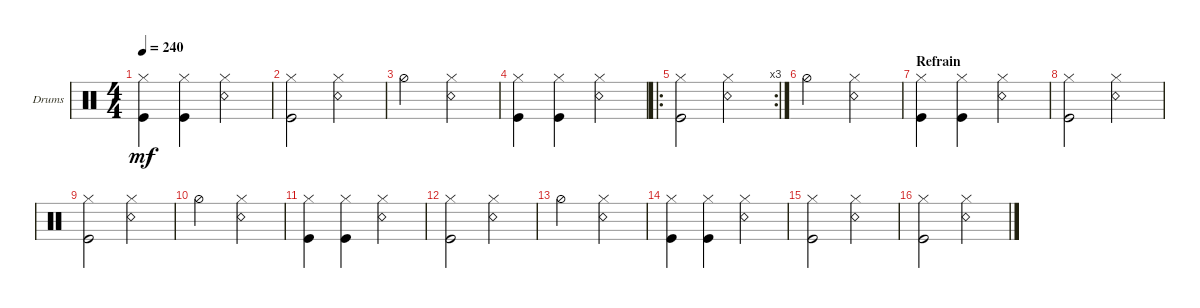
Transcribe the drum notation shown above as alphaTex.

\defaultSystemsLayout 4
\bracketExtendMode groupsimilarinstruments
\firstSystemTrackNameOrientation horizontal
\otherSystemsTrackNameOrientation horizontal
\track ("Drumkit" "Drums") {instrument percussion}
\staff {score}
\articulation defaults
\ts (4 4)
\tempo 240
\clef neutral
\ks c
("Kick (hit)" "Hi-Hat (closed)").4{dy mf} ("Kick (hit)" "Hi-Hat (closed)").4 ("Snare (rim shot)" "Hi-Hat (closed)").2 |
("Kick (hit)" "Hi-Hat (closed)").2 ("Snare (rim shot)" "Hi-Hat (closed)").2 |
"Hi-Hat (half)".2 ("Snare (rim shot)" "Hi-Hat (closed)").2 |
("Kick (hit)" "Hi-Hat (closed)").4 ("Kick (hit)" "Hi-Hat (closed)").4 ("Snare (rim shot)" "Hi-Hat (closed)").2 |
\ro
\rc 3
("Kick (hit)" "Hi-Hat (closed)").2 ("Snare (rim shot)" "Hi-Hat (closed)").2 |
"Hi-Hat (half)".2 ("Snare (rim shot)" "Hi-Hat (closed)").2 |
\section ("" "Refrain")
("Kick (hit)" "Hi-Hat (closed)").4 ("Kick (hit)" "Hi-Hat (closed)").4 ("Snare (rim shot)" "Hi-Hat (closed)").2 |
("Kick (hit)" "Hi-Hat (closed)").2 ("Snare (rim shot)" "Hi-Hat (closed)").2 |
("Kick (hit)" "Hi-Hat (closed)").2 ("Snare (rim shot)" "Hi-Hat (closed)").2 |
"Hi-Hat (half)".2 ("Snare (rim shot)" "Hi-Hat (closed)").2 |
("Kick (hit)" "Hi-Hat (closed)").4 ("Kick (hit)" "Hi-Hat (closed)").4 ("Snare (rim shot)" "Hi-Hat (closed)").2 |
("Kick (hit)" "Hi-Hat (closed)").2 ("Snare (rim shot)" "Hi-Hat (closed)").2 |
"Hi-Hat (half)".2 ("Snare (rim shot)" "Hi-Hat (closed)").2 |
("Kick (hit)" "Hi-Hat (closed)").4 ("Kick (hit)" "Hi-Hat (closed)").4 ("Snare (rim shot)" "Hi-Hat (closed)").2 |
("Kick (hit)" "Hi-Hat (closed)").2 ("Snare (rim shot)" "Hi-Hat (closed)").2 |
("Kick (hit)" "Hi-Hat (closed)").2 ("Snare (rim shot)" "Hi-Hat (closed)").2
